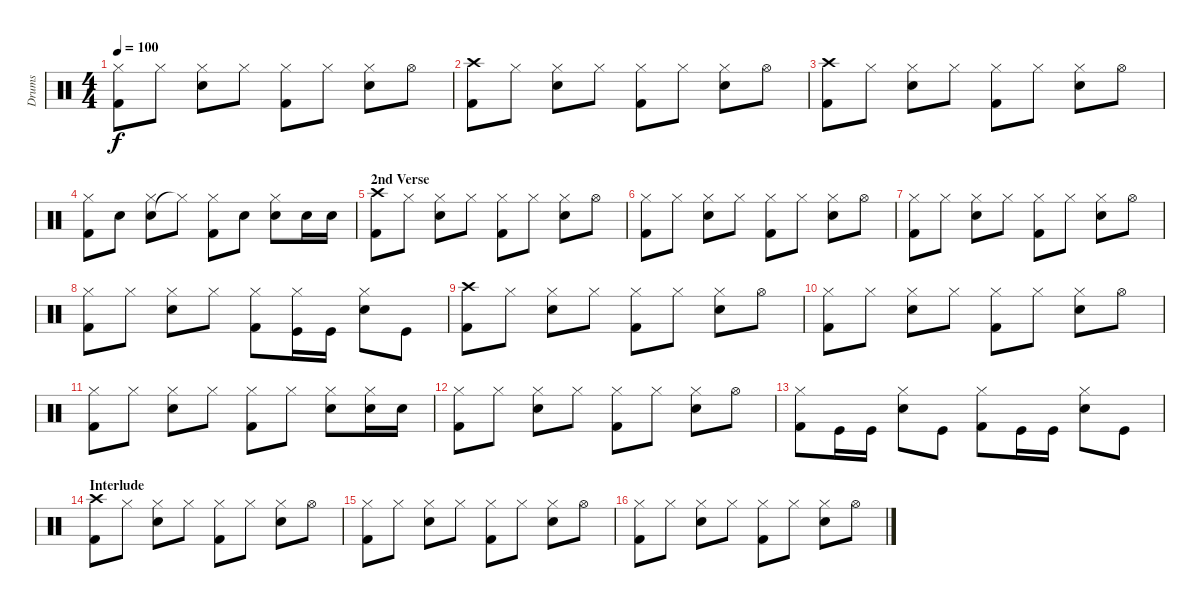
\track ("Drums" "Drums") {instrument percussion}
\staff {score}
\articulation defaults
\ts (4 4)
\tempo 100
\clef neutral
\ks c
("Kick (hit) 2" "Hi-Hat (closed)").8{dy f} "Hi-Hat (closed)".8 ("Snare (hit) 2" "Hi-Hat (closed)").8 "Hi-Hat (closed)".8 ("Kick (hit) 2" "Hi-Hat (closed)").8 "Hi-Hat (closed)".8 ("Snare (hit) 2" "Hi-Hat (closed)").8 "Hi-Hat (open)".8 |
("Kick (hit) 2" "Crash high (hit)").8 "Hi-Hat (closed)".8 ("Snare (hit) 2" "Hi-Hat (closed)").8 "Hi-Hat (closed)".8 ("Kick (hit) 2" "Hi-Hat (closed)").8 "Hi-Hat (closed)".8 ("Snare (hit) 2" "Hi-Hat (closed)").8 "Hi-Hat (open)".8 |
("Kick (hit) 2" "Crash high (hit)").8 "Hi-Hat (closed)".8 ("Snare (hit) 2" "Hi-Hat (closed)").8 "Hi-Hat (closed)".8 ("Kick (hit) 2" "Hi-Hat (closed)").8 "Hi-Hat (closed)".8 ("Snare (hit) 2" "Hi-Hat (closed)").8 "Hi-Hat (open)".8 |
("Kick (hit) 2" "Hi-Hat (closed)").8 "Snare (hit) 2".8 ("Snare (hit) 2" "Hi-Hat (closed)").8 "Hi-Hat (closed)"{t}.8 ("Kick (hit) 2" "Hi-Hat (closed)").8 "Snare (hit) 2".8 ("Snare (hit) 2" "Hi-Hat (closed)").8 "Snare (hit) 2".16 "Snare (hit) 2".16 |
\section ("" "2nd Verse")
("Kick (hit) 2" "Crash high (hit)").8 "Hi-Hat (closed)".8 ("Snare (hit) 2" "Hi-Hat (closed)").8 "Hi-Hat (closed)".8 ("Kick (hit) 2" "Hi-Hat (closed)").8 "Hi-Hat (closed)".8 ("Snare (hit) 2" "Hi-Hat (closed)").8 "Hi-Hat (open)".8 |
("Kick (hit) 2" "Hi-Hat (closed)").8 "Hi-Hat (closed)".8 ("Snare (hit) 2" "Hi-Hat (closed)").8 "Hi-Hat (closed)".8 ("Kick (hit) 2" "Hi-Hat (closed)").8 "Hi-Hat (closed)".8 ("Snare (hit) 2" "Hi-Hat (closed)").8 "Hi-Hat (open)".8 |
("Kick (hit) 2" "Hi-Hat (closed)").8 "Hi-Hat (closed)".8 ("Snare (hit) 2" "Hi-Hat (closed)").8 "Hi-Hat (closed)".8 ("Kick (hit) 2" "Hi-Hat (closed)").8 "Hi-Hat (closed)".8 ("Snare (hit) 2" "Hi-Hat (closed)").8 "Hi-Hat (open)".8 |
("Kick (hit) 2" "Hi-Hat (closed)").8 "Hi-Hat (closed)".8 ("Snare (hit) 2" "Hi-Hat (closed)").8 "Hi-Hat (closed)".8 ("Kick (hit) 2" "Hi-Hat (closed)").8 ("Kick (hit)" "Hi-Hat (closed)").16 "Kick (hit)".16 ("Snare (hit) 2" "Hi-Hat (closed)").8 "Kick (hit)".8 |
("Kick (hit) 2" "Crash high (hit)").8 "Hi-Hat (closed)".8 ("Snare (hit) 2" "Hi-Hat (closed)").8 "Hi-Hat (closed)".8 ("Kick (hit) 2" "Hi-Hat (closed)").8 "Hi-Hat (closed)".8 ("Snare (hit) 2" "Hi-Hat (closed)").8 "Hi-Hat (open)".8 |
("Kick (hit) 2" "Hi-Hat (closed)").8 "Hi-Hat (closed)".8 ("Snare (hit) 2" "Hi-Hat (closed)").8 "Hi-Hat (closed)".8 ("Kick (hit) 2" "Hi-Hat (closed)").8 "Hi-Hat (closed)".8 ("Snare (hit) 2" "Hi-Hat (closed)").8 "Hi-Hat (open)".8 |
("Kick (hit) 2" "Hi-Hat (closed)").8 "Hi-Hat (closed)".8 ("Snare (hit) 2" "Hi-Hat (closed)").8 "Hi-Hat (closed)".8 ("Kick (hit) 2" "Hi-Hat (closed)").8 "Hi-Hat (closed)".8 ("Snare (hit) 2" "Hi-Hat (closed)").8 ("Snare (hit) 2" "Hi-Hat (closed)").16 "Snare (hit) 2".16 |
("Kick (hit) 2" "Hi-Hat (closed)").8 "Hi-Hat (closed)".8 ("Snare (hit) 2" "Hi-Hat (closed)").8 "Hi-Hat (closed)".8 ("Kick (hit) 2" "Hi-Hat (closed)").8 "Hi-Hat (closed)".8 ("Snare (hit) 2" "Hi-Hat (closed)").8 "Hi-Hat (open)".8 |
("Kick (hit) 2" "Hi-Hat (closed)").8 "Kick (hit)".16 "Kick (hit)".16 ("Snare (hit) 2" "Hi-Hat (closed)").8 "Kick (hit)".8 ("Kick (hit) 2" "Hi-Hat (closed)").8 "Kick (hit)".16 "Kick (hit)".16 ("Snare (hit) 2" "Hi-Hat (closed)").8 "Kick (hit)".8 |
\section ("" "Interlude")
("Kick (hit) 2" "Crash high (hit)").8 "Hi-Hat (closed)".8 ("Snare (hit) 2" "Hi-Hat (closed)").8 "Hi-Hat (closed)".8 ("Kick (hit) 2" "Hi-Hat (closed)").8 "Hi-Hat (closed)".8 ("Snare (hit) 2" "Hi-Hat (closed)").8 "Hi-Hat (open)".8 |
("Kick (hit) 2" "Hi-Hat (closed)").8 "Hi-Hat (closed)".8 ("Snare (hit) 2" "Hi-Hat (closed)").8 "Hi-Hat (closed)".8 ("Kick (hit) 2" "Hi-Hat (closed)").8 "Hi-Hat (closed)".8 ("Snare (hit) 2" "Hi-Hat (closed)").8 "Hi-Hat (open)".8 |
("Kick (hit) 2" "Hi-Hat (closed)").8 "Hi-Hat (closed)".8 ("Snare (hit) 2" "Hi-Hat (closed)").8 "Hi-Hat (closed)".8 ("Kick (hit) 2" "Hi-Hat (closed)").8 "Hi-Hat (closed)".8 ("Snare (hit) 2" "Hi-Hat (closed)").8 "Hi-Hat (open)".8
